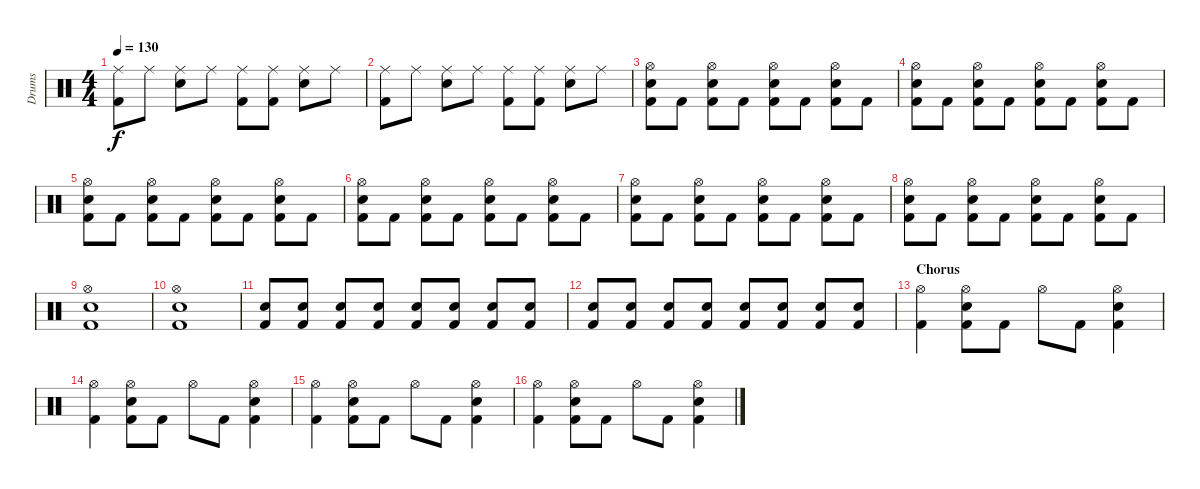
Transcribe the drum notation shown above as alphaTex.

\track ("Drums" "Drums") {instrument percussion}
\staff {score}
\articulation defaults
\ts (4 4)
\tempo 130
\clef neutral
\ks c
("Kick (hit) 2" "Ride (middle)").8{dy f} "Ride (middle)".8 ("Snare (hit) 2" "Ride (middle)").8 "Ride (middle)".8 ("Kick (hit) 2" "Ride (middle)").8 ("Kick (hit) 2" "Ride (middle)").8 ("Snare (hit) 2" "Ride (middle)").8 "Ride (middle)".8 |
("Kick (hit) 2" "Ride (middle)").8 "Ride (middle)".8 ("Snare (hit) 2" "Ride (middle)").8 "Ride (middle)".8 ("Kick (hit) 2" "Ride (middle)").8 ("Kick (hit) 2" "Ride (middle)").8 ("Snare (hit) 2" "Ride (middle)").8 "Ride (middle)".8 |
("Kick (hit) 2" "Hi-Hat (open)" "Snare (hit) 2").8 "Kick (hit) 2".8 ("Kick (hit) 2" "Hi-Hat (open)" "Snare (hit) 2").8 "Kick (hit) 2".8 ("Kick (hit) 2" "Hi-Hat (open)" "Snare (hit) 2").8 "Kick (hit) 2".8 ("Kick (hit) 2" "Hi-Hat (open)" "Snare (hit) 2").8 "Kick (hit) 2".8 |
("Kick (hit) 2" "Hi-Hat (open)" "Snare (hit) 2").8 "Kick (hit) 2".8 ("Kick (hit) 2" "Hi-Hat (open)" "Snare (hit) 2").8 "Kick (hit) 2".8 ("Kick (hit) 2" "Hi-Hat (open)" "Snare (hit) 2").8 "Kick (hit) 2".8 ("Kick (hit) 2" "Hi-Hat (open)" "Snare (hit) 2").8 "Kick (hit) 2".8 |
("Kick (hit) 2" "Hi-Hat (open)" "Snare (hit) 2").8 "Kick (hit) 2".8 ("Kick (hit) 2" "Hi-Hat (open)" "Snare (hit) 2").8 "Kick (hit) 2".8 ("Kick (hit) 2" "Hi-Hat (open)" "Snare (hit) 2").8 "Kick (hit) 2".8 ("Kick (hit) 2" "Hi-Hat (open)" "Snare (hit) 2").8 "Kick (hit) 2".8 |
("Kick (hit) 2" "Hi-Hat (open)" "Snare (hit) 2").8 "Kick (hit) 2".8 ("Kick (hit) 2" "Hi-Hat (open)" "Snare (hit) 2").8 "Kick (hit) 2".8 ("Kick (hit) 2" "Hi-Hat (open)" "Snare (hit) 2").8 "Kick (hit) 2".8 ("Kick (hit) 2" "Hi-Hat (open)" "Snare (hit) 2").8 "Kick (hit) 2".8 |
("Kick (hit) 2" "Hi-Hat (open)" "Snare (hit) 2").8 "Kick (hit) 2".8 ("Kick (hit) 2" "Hi-Hat (open)" "Snare (hit) 2").8 "Kick (hit) 2".8 ("Kick (hit) 2" "Hi-Hat (open)" "Snare (hit) 2").8 "Kick (hit) 2".8 ("Kick (hit) 2" "Hi-Hat (open)" "Snare (hit) 2").8 "Kick (hit) 2".8 |
("Kick (hit) 2" "Hi-Hat (open)" "Snare (hit) 2").8 "Kick (hit) 2".8 ("Kick (hit) 2" "Hi-Hat (open)" "Snare (hit) 2").8 "Kick (hit) 2".8 ("Kick (hit) 2" "Hi-Hat (open)" "Snare (hit) 2").8 "Kick (hit) 2".8 ("Kick (hit) 2" "Hi-Hat (open)" "Snare (hit) 2").8 "Kick (hit) 2".8 |
("Kick (hit) 2" "Hi-Hat (open)" "Snare (hit) 2").1 |
("Kick (hit) 2" "Hi-Hat (open)" "Snare (hit) 2").1 |
("Kick (hit) 2" "Snare (hit) 2").8 ("Kick (hit) 2" "Snare (hit) 2").8 ("Kick (hit) 2" "Snare (hit) 2").8 ("Kick (hit) 2" "Snare (hit) 2").8 ("Kick (hit) 2" "Snare (hit) 2").8 ("Kick (hit) 2" "Snare (hit) 2").8 ("Kick (hit) 2" "Snare (hit) 2").8 ("Kick (hit) 2" "Snare (hit) 2").8 |
("Kick (hit) 2" "Snare (hit) 2").8 ("Kick (hit) 2" "Snare (hit) 2").8 ("Kick (hit) 2" "Snare (hit) 2").8 ("Kick (hit) 2" "Snare (hit) 2").8 ("Kick (hit) 2" "Snare (hit) 2").8 ("Kick (hit) 2" "Snare (hit) 2").8 ("Kick (hit) 2" "Snare (hit) 2").8 ("Kick (hit) 2" "Snare (hit) 2").8 |
\section ("" "Chorus")
("Kick (hit) 2" "Hi-Hat (open)").4 ("Kick (hit) 2" "Hi-Hat (open)" "Snare (hit) 2").8 "Kick (hit) 2".8 "Hi-Hat (open)".8 "Kick (hit) 2".8 ("Kick (hit) 2" "Hi-Hat (open)" "Snare (hit) 2").4 |
("Kick (hit) 2" "Hi-Hat (open)").4 ("Kick (hit) 2" "Hi-Hat (open)" "Snare (hit) 2").8 "Kick (hit) 2".8 "Hi-Hat (open)".8 "Kick (hit) 2".8 ("Kick (hit) 2" "Hi-Hat (open)" "Snare (hit) 2").4 |
("Kick (hit) 2" "Hi-Hat (open)").4 ("Kick (hit) 2" "Hi-Hat (open)" "Snare (hit) 2").8 "Kick (hit) 2".8 "Hi-Hat (open)".8 "Kick (hit) 2".8 ("Kick (hit) 2" "Hi-Hat (open)" "Snare (hit) 2").4 |
("Kick (hit) 2" "Hi-Hat (open)").4 ("Kick (hit) 2" "Hi-Hat (open)" "Snare (hit) 2").8 "Kick (hit) 2".8 "Hi-Hat (open)".8 "Kick (hit) 2".8 ("Kick (hit) 2" "Hi-Hat (open)" "Snare (hit) 2").4
